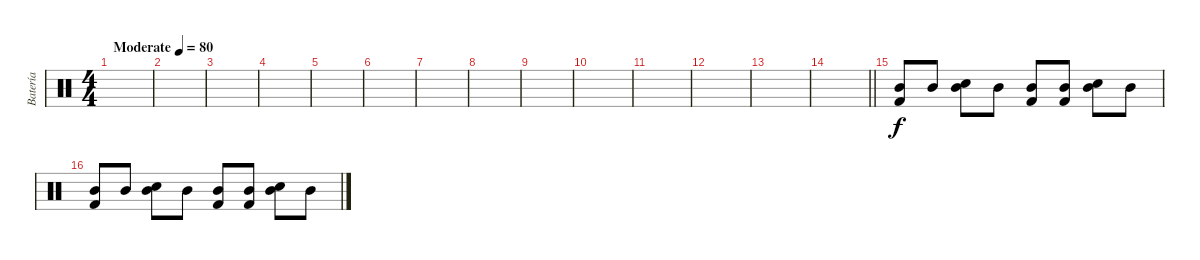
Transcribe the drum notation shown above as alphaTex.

\track ("Batería" "Batería") {instrument percussion}
\staff {score}
\articulation defaults
\ts (4 4)
\tempo (80 "Moderate")
\clef neutral
\ks c
|
|
|
|
|
|
|
|
|
|
|
|
|
\barLineRight lightlight
|
("Mid Tom (hit)" "Kick (hit) 2").8 "Mid Tom (hit)".8 ("Mid Tom (hit)" "Snare (hit) 2").8 "Mid Tom (hit)".8 ("Mid Tom (hit)" "Kick (hit) 2").8 ("Mid Tom (hit)" "Kick (hit) 2").8 ("Mid Tom (hit)" "Snare (hit) 2").8 "Mid Tom (hit)".8 |
("Mid Tom (hit)" "Kick (hit) 2").8 "Mid Tom (hit)".8 ("Mid Tom (hit)" "Snare (hit) 2").8 "Mid Tom (hit)".8 ("Mid Tom (hit)" "Kick (hit) 2").8 ("Mid Tom (hit)" "Kick (hit) 2").8 ("Mid Tom (hit)" "Snare (hit) 2").8 "Mid Tom (hit)".8
